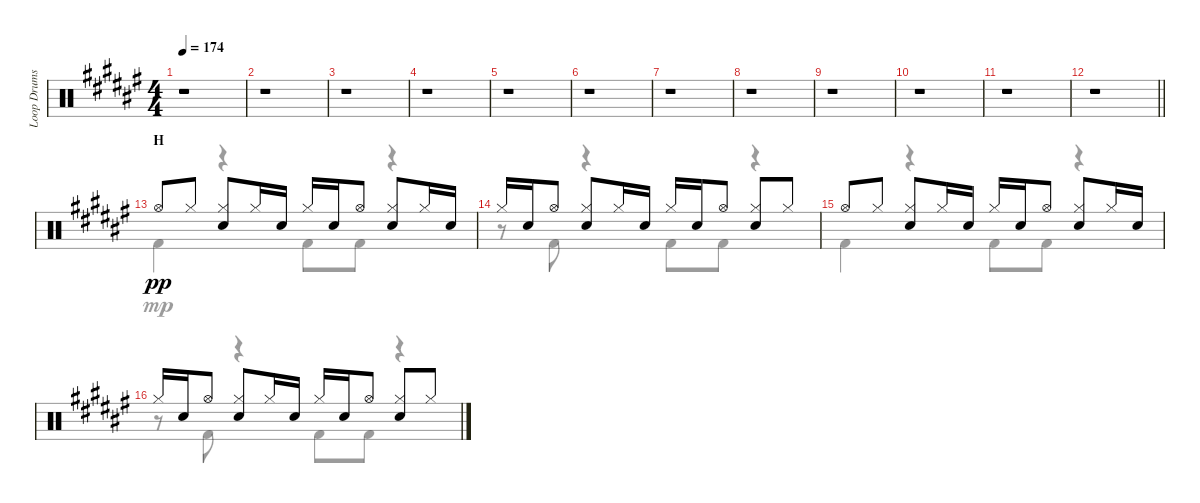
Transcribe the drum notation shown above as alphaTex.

\track ("Loop Drums" "Loop Drums") {instrument percussion}
\staff {score}
\articulation defaults
\voice
\ts (4 4)
\tempo 174
\clef neutral
\ks f#
r.1{dy pp} |
r.1 |
r.1 |
r.1 |
r.1 |
r.1 |
r.1 |
r.1 |
r.1 |
r.1 |
r.1 |
\barLineRight lightlight
r.1 |
\section ("" "H")
"Hi-Hat (open)".8 "Hi-Hat (closed)".8 ("Hi-Hat (closed)" "Electric Snare (hit)").8 "Hi-Hat (closed)".16 "Electric Snare (hit)".16 "Hi-Hat (closed)".16 "Electric Snare (hit)".16 "Hi-Hat (open)".8 ("Hi-Hat (closed)" "Electric Snare (hit)").8 "Hi-Hat (closed)".16 "Electric Snare (hit)".16 |
"Hi-Hat (closed)".16 "Electric Snare (hit)".16 "Hi-Hat (open)".8 ("Hi-Hat (closed)" "Electric Snare (hit)").8 "Hi-Hat (closed)".16 "Electric Snare (hit)".16 "Hi-Hat (closed)".16 "Electric Snare (hit)".16 "Hi-Hat (open)".8 ("Hi-Hat (closed)" "Electric Snare (hit)").8 "Hi-Hat (closed)".8 |
"Hi-Hat (open)".8 "Hi-Hat (closed)".8 ("Hi-Hat (closed)" "Electric Snare (hit)").8 "Hi-Hat (closed)".16 "Electric Snare (hit)".16 "Hi-Hat (closed)".16 "Electric Snare (hit)".16 "Hi-Hat (open)".8 ("Hi-Hat (closed)" "Electric Snare (hit)").8 "Hi-Hat (closed)".16 "Electric Snare (hit)".16 |
"Hi-Hat (closed)".16 "Electric Snare (hit)".16 "Hi-Hat (open)".8 ("Hi-Hat (closed)" "Electric Snare (hit)").8 "Hi-Hat (closed)".16 "Electric Snare (hit)".16 "Hi-Hat (closed)".16 "Electric Snare (hit)".16 "Hi-Hat (open)".8 ("Hi-Hat (closed)" "Electric Snare (hit)").8 "Hi-Hat (closed)".8
\voice
\clef neutral
\ottava regular
\simile none
\ks f#
r.1{dy mp} |
r.1 |
r.1 |
r.1 |
r.1 |
r.1 |
r.1 |
r.1 |
r.1 |
r.1 |
r.1 |
\barLineRight lightlight
r.1 |
"Kick (hit) 2".4 r.4 "Kick (hit) 2".8 "Kick (hit) 2".8 r.4 |
r.8 "Kick (hit) 2".8 r.4 "Kick (hit) 2".8 "Kick (hit) 2".8 r.4 |
"Kick (hit) 2".4 r.4 "Kick (hit) 2".8 "Kick (hit) 2".8 r.4 |
r.8 "Kick (hit) 2".8 r.4 "Kick (hit) 2".8 "Kick (hit) 2".8 r.4
